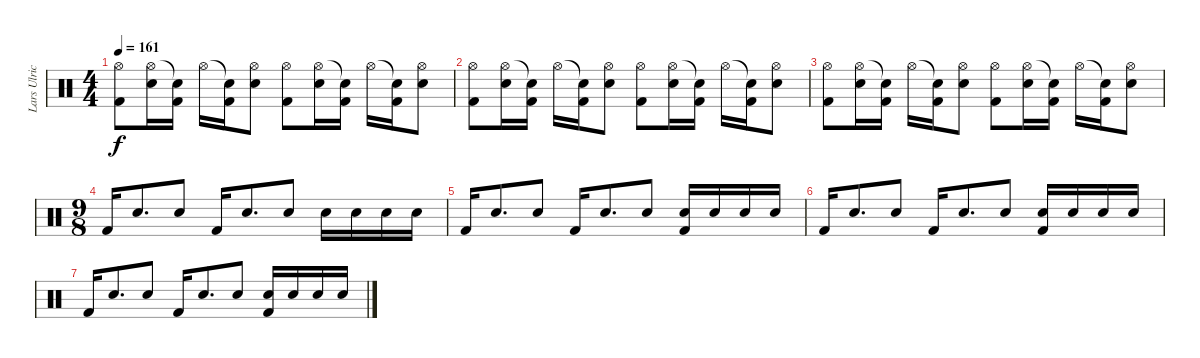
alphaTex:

\track ("Lars Ulrich" "Lars Ulric") {instrument percussion}
\staff {score}
\articulation defaults
\ts (4 4)
\tempo 161
\clef neutral
\ks c
("Hi-Hat (open)" "Kick (hit) 2").8{dy f} ("Hi-Hat (open)" "Electric Snare (hit)").16 ("Snare (hit)"{t} "Kick (hit) 2").16 "Hi-Hat (open)".16 ("Snare (hit)"{t} "Kick (hit) 2").16 ("Hi-Hat (open)" "Electric Snare (hit)").8 ("Hi-Hat (open)" "Kick (hit) 2").8 ("Hi-Hat (open)" "Electric Snare (hit)").16 ("Snare (hit)"{t} "Kick (hit) 2").16 "Hi-Hat (open)".16 ("Snare (hit)"{t} "Kick (hit) 2").16 ("Hi-Hat (open)" "Electric Snare (hit)").8 |
("Hi-Hat (open)" "Kick (hit) 2").8 ("Hi-Hat (open)" "Electric Snare (hit)").16 ("Snare (hit)"{t} "Kick (hit) 2").16 "Hi-Hat (open)".16 ("Snare (hit)"{t} "Kick (hit) 2").16 ("Hi-Hat (open)" "Electric Snare (hit)").8 ("Hi-Hat (open)" "Kick (hit) 2").8 ("Hi-Hat (open)" "Electric Snare (hit)").16 ("Snare (hit)"{t} "Kick (hit) 2").16 "Hi-Hat (open)".16 ("Snare (hit)"{t} "Kick (hit) 2").16 ("Hi-Hat (open)" "Electric Snare (hit)").8 |
("Hi-Hat (open)" "Kick (hit) 2").8 ("Hi-Hat (open)" "Electric Snare (hit)").16 ("Snare (hit)"{t} "Kick (hit) 2").16 "Hi-Hat (open)".16 ("Snare (hit)"{t} "Kick (hit) 2").16 ("Hi-Hat (open)" "Electric Snare (hit)").8 ("Hi-Hat (open)" "Kick (hit) 2").8 ("Hi-Hat (open)" "Electric Snare (hit)").16 ("Snare (hit)"{t} "Kick (hit) 2").16 "Hi-Hat (open)".16 ("Snare (hit)"{t} "Kick (hit) 2").16 ("Hi-Hat (open)" "Electric Snare (hit)").8 |
\ts (9 8)
"Kick (hit) 2".16 "Electric Snare (hit)".8{d} "Electric Snare (hit)".8 "Kick (hit) 2".16 "Electric Snare (hit)".8{d} "Electric Snare (hit)".8 "Electric Snare (hit)".16 "Electric Snare (hit)".16 "Electric Snare (hit)".16 "Electric Snare (hit)".16 |
"Kick (hit) 2".16 "Electric Snare (hit)".8{d} "Electric Snare (hit)".8 "Kick (hit) 2".16 "Electric Snare (hit)".8{d} "Electric Snare (hit)".8 ("Electric Snare (hit)" "Kick (hit) 2").16 "Electric Snare (hit)".16 "Electric Snare (hit)".16 "Electric Snare (hit)".16 |
"Kick (hit) 2".16 "Electric Snare (hit)".8{d} "Electric Snare (hit)".8 "Kick (hit) 2".16 "Electric Snare (hit)".8{d} "Electric Snare (hit)".8 ("Electric Snare (hit)" "Kick (hit) 2").16 "Electric Snare (hit)".16 "Electric Snare (hit)".16 "Electric Snare (hit)".16 |
"Kick (hit) 2".16 "Electric Snare (hit)".8{d} "Electric Snare (hit)".8 "Kick (hit) 2".16 "Electric Snare (hit)".8{d} "Electric Snare (hit)".8 ("Electric Snare (hit)" "Kick (hit) 2").16 "Electric Snare (hit)".16 "Electric Snare (hit)".16 "Electric Snare (hit)".16
